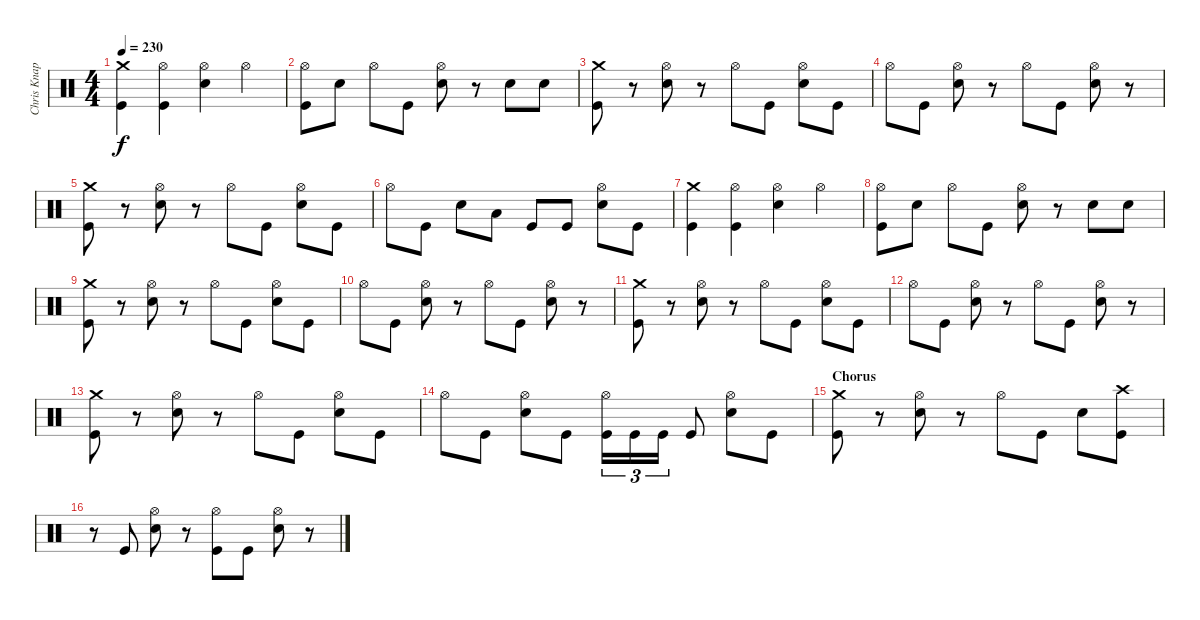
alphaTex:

\track ("Chris Knapp" "Chris Knap") {instrument percussion}
\staff {score}
\articulation defaults
\ts (4 4)
\tempo 230
\clef neutral
\ks c
("Crash medium (hit)" "Kick (hit)").4{dy f} ("Hi-Hat (open)" "Kick (hit)").4 ("Hi-Hat (open)" "Electric Snare (hit)").4 "Hi-Hat (open)".4 |
("Hi-Hat (open)" "Kick (hit)").8 "Electric Snare (hit)".8 "Hi-Hat (open)".8 "Kick (hit)".8 ("Hi-Hat (open)" "Electric Snare (hit)").8 r.8 "Electric Snare (hit)".8 "Electric Snare (hit)".8 |
("Crash medium (hit)" "Kick (hit)").8 r.8 ("Hi-Hat (open)" "Electric Snare (hit)").8 r.8 "Hi-Hat (open)".8 "Kick (hit)".8 ("Hi-Hat (open)" "Electric Snare (hit)").8 "Kick (hit)".8 |
"Hi-Hat (open)".8 "Kick (hit)".8 ("Hi-Hat (open)" "Electric Snare (hit)").8 r.8 "Hi-Hat (open)".8 "Kick (hit)".8 ("Hi-Hat (open)" "Electric Snare (hit)").8 r.8 |
("Crash medium (hit)" "Kick (hit)").8 r.8 ("Hi-Hat (open)" "Electric Snare (hit)").8 r.8 "Hi-Hat (open)".8 "Kick (hit)".8 ("Hi-Hat (open)" "Electric Snare (hit)").8 "Kick (hit)".8 |
"Hi-Hat (open)".8 "Kick (hit)".8 "Electric Snare (hit)".8 "Low Floor Tom (hit)".8 "Kick (hit)".8 "Kick (hit)".8 ("Hi-Hat (open)" "Electric Snare (hit)").8 "Kick (hit)".8 |
("Crash medium (hit)" "Kick (hit)").4 ("Hi-Hat (open)" "Kick (hit)").4 ("Hi-Hat (open)" "Electric Snare (hit)").4 "Hi-Hat (open)".4 |
("Hi-Hat (open)" "Kick (hit)").8 "Electric Snare (hit)".8 "Hi-Hat (open)".8 "Kick (hit)".8 ("Hi-Hat (open)" "Electric Snare (hit)").8 r.8 "Electric Snare (hit)".8 "Electric Snare (hit)".8 |
("Crash medium (hit)" "Kick (hit)").8 r.8 ("Hi-Hat (open)" "Electric Snare (hit)").8 r.8 "Hi-Hat (open)".8 "Kick (hit)".8 ("Hi-Hat (open)" "Electric Snare (hit)").8 "Kick (hit)".8 |
"Hi-Hat (open)".8 "Kick (hit)".8 ("Hi-Hat (open)" "Electric Snare (hit)").8 r.8 "Hi-Hat (open)".8 "Kick (hit)".8 ("Hi-Hat (open)" "Electric Snare (hit)").8 r.8 |
("Crash medium (hit)" "Kick (hit)").8 r.8 ("Hi-Hat (open)" "Electric Snare (hit)").8 r.8 "Hi-Hat (open)".8 "Kick (hit)".8 ("Hi-Hat (open)" "Electric Snare (hit)").8 "Kick (hit)".8 |
"Hi-Hat (open)".8 "Kick (hit)".8 ("Hi-Hat (open)" "Electric Snare (hit)").8 r.8 "Hi-Hat (open)".8 "Kick (hit)".8 ("Hi-Hat (open)" "Electric Snare (hit)").8 r.8 |
("Crash medium (hit)" "Kick (hit)").8 r.8 ("Hi-Hat (open)" "Electric Snare (hit)").8 r.8 "Hi-Hat (open)".8 "Kick (hit)".8 ("Hi-Hat (open)" "Electric Snare (hit)").8 "Kick (hit)".8 |
"Hi-Hat (open)".8 "Kick (hit)".8 ("Hi-Hat (open)" "Electric Snare (hit)").8 "Kick (hit)".8 ("Hi-Hat (open)" "Kick (hit)").16{tu (3 2)} "Kick (hit)".16{tu (3 2)} "Kick (hit)".16{tu (3 2)} "Kick (hit)".8 ("Hi-Hat (open)" "Electric Snare (hit)").8 "Kick (hit)".8 |
\section ("" "Chorus")
("Crash medium (hit)" "Kick (hit)").8 r.8 ("Hi-Hat (open)" "Electric Snare (hit)").8 r.8 "Hi-Hat (open)".8 "Kick (hit)".8 "Electric Snare (hit)".8 ("Crash high (hit)" "Kick (hit)").8 |
r.8 "Kick (hit)".8 ("Hi-Hat (open)" "Electric Snare (hit)").8 r.8 ("Hi-Hat (open)" "Kick (hit)").8 "Kick (hit)".8 ("Hi-Hat (open)" "Electric Snare (hit)").8 r.8
